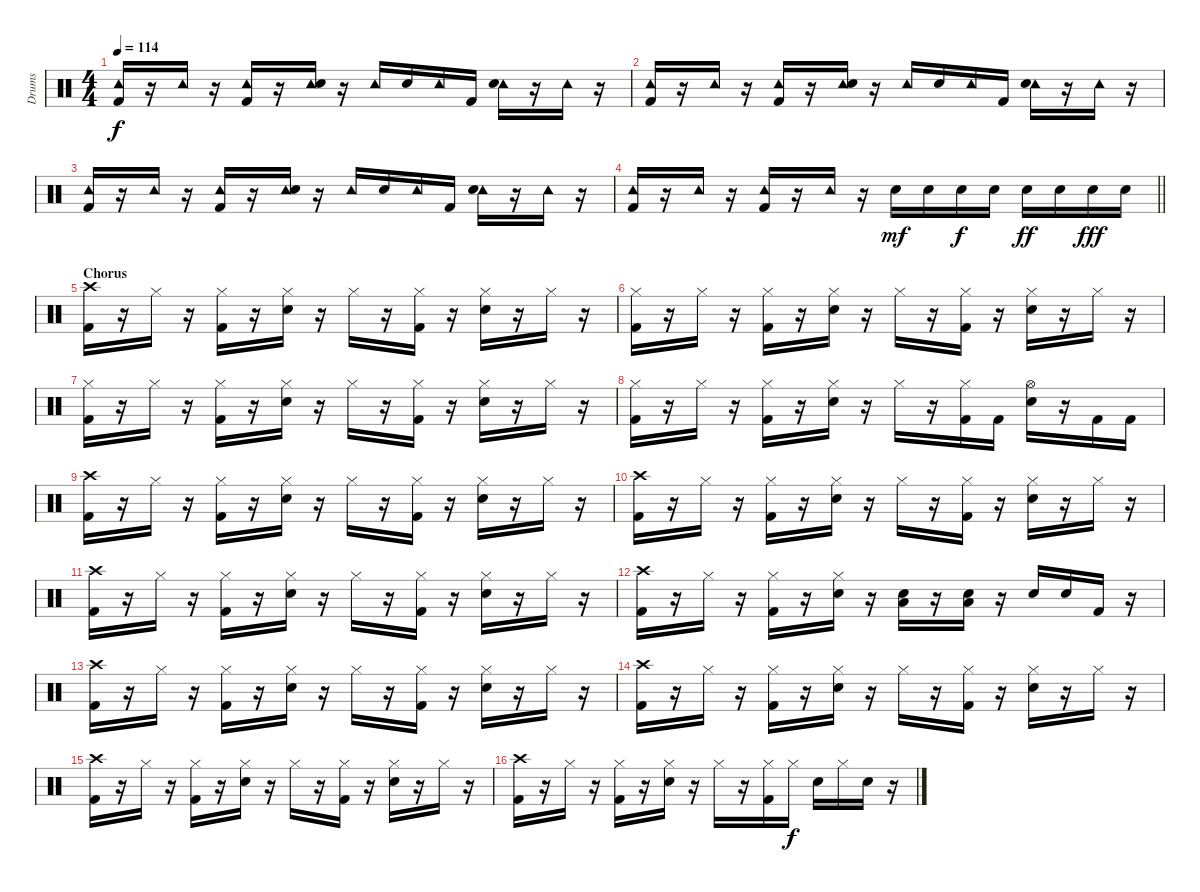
\track ("Drums" "Drums") {instrument percussion bank 127}
\staff {score}
\articulation defaults
\ts (4 4)
\tempo 114
\clef neutral
\ks c
("Tambourine (hit)" "Kick (hit) 2").16{dy f} r.16 "Tambourine (hit)".16 r.16 ("Tambourine (hit)" "Kick (hit) 2").16 r.16 ("Tambourine (hit)" "Electric Snare (hit)").16 r.16 "Tambourine (hit)".16 "Electric Snare (hit)".16 "Tambourine (hit)".16 "Kick (hit) 2".16 ("Tambourine (hit)" "Electric Snare (hit)").16 r.16 "Tambourine (hit)".16 r.16 |
("Tambourine (hit)" "Kick (hit) 2").16 r.16 "Tambourine (hit)".16 r.16 ("Tambourine (hit)" "Kick (hit) 2").16 r.16 ("Tambourine (hit)" "Electric Snare (hit)").16 r.16 "Tambourine (hit)".16 "Electric Snare (hit)".16 "Tambourine (hit)".16 "Kick (hit) 2".16 ("Tambourine (hit)" "Electric Snare (hit)").16 r.16 "Tambourine (hit)".16 r.16 |
("Tambourine (hit)" "Kick (hit) 2").16 r.16 "Tambourine (hit)".16 r.16 ("Tambourine (hit)" "Kick (hit) 2").16 r.16 ("Tambourine (hit)" "Electric Snare (hit)").16 r.16 "Tambourine (hit)".16 "Electric Snare (hit)".16 "Tambourine (hit)".16 "Kick (hit) 2".16 ("Tambourine (hit)" "Electric Snare (hit)").16 r.16 "Tambourine (hit)".16 r.16 |
\barLineRight lightlight
("Tambourine (hit)" "Kick (hit) 2").16 r.16 "Tambourine (hit)".16 r.16 ("Tambourine (hit)" "Kick (hit) 2").16 r.16 "Tambourine (hit)".16 r.16 "Electric Snare (hit)".16{dy mf} "Electric Snare (hit)".16 "Electric Snare (hit)".16{dy f} "Electric Snare (hit)".16 "Electric Snare (hit)".16{dy ff} "Electric Snare (hit)".16 "Electric Snare (hit)".16{dy fff} "Electric Snare (hit)".16 |
\section ("" "Chorus")
("Crash high (hit)" "Kick (hit) 2").16 r.16 "Hi-Hat (closed)".16 r.16 ("Hi-Hat (closed)" "Kick (hit) 2").16 r.16 ("Hi-Hat (closed)" "Electric Snare (hit)").16 r.16 "Hi-Hat (closed)".16 r.16 ("Hi-Hat (closed)" "Kick (hit) 2").16 r.16 ("Hi-Hat (closed)" "Electric Snare (hit)").16 r.16 "Hi-Hat (closed)".16 r.16 |
("Hi-Hat (closed)" "Kick (hit) 2").16 r.16 "Hi-Hat (closed)".16 r.16 ("Hi-Hat (closed)" "Kick (hit) 2").16 r.16 ("Hi-Hat (closed)" "Electric Snare (hit)").16 r.16 "Hi-Hat (closed)".16 r.16 ("Hi-Hat (closed)" "Kick (hit) 2").16 r.16 ("Hi-Hat (closed)" "Electric Snare (hit)").16 r.16 "Hi-Hat (closed)".16 r.16 |
("Hi-Hat (closed)" "Kick (hit) 2").16 r.16 "Hi-Hat (closed)".16 r.16 ("Hi-Hat (closed)" "Kick (hit) 2").16 r.16 ("Hi-Hat (closed)" "Electric Snare (hit)").16 r.16 "Hi-Hat (closed)".16 r.16 ("Hi-Hat (closed)" "Kick (hit) 2").16 r.16 ("Hi-Hat (closed)" "Electric Snare (hit)").16 r.16 "Hi-Hat (closed)".16 r.16 |
("Hi-Hat (closed)" "Kick (hit) 2").16 r.16 "Hi-Hat (closed)".16 r.16 ("Hi-Hat (closed)" "Kick (hit) 2").16 r.16 ("Hi-Hat (closed)" "Electric Snare (hit)").16 r.16 "Hi-Hat (closed)".16 r.16 ("Hi-Hat (closed)" "Kick (hit) 2").16 "Kick (hit) 2".16 ("Hi-Hat (open)" "Electric Snare (hit)").16 r.16 "Kick (hit) 2".16 "Kick (hit) 2".16 |
("Crash high (hit)" "Kick (hit) 2").16 r.16 "Hi-Hat (closed)".16 r.16 ("Hi-Hat (closed)" "Kick (hit) 2").16 r.16 ("Hi-Hat (closed)" "Electric Snare (hit)").16 r.16 "Hi-Hat (closed)".16 r.16 ("Hi-Hat (closed)" "Kick (hit) 2").16 r.16 ("Hi-Hat (closed)" "Electric Snare (hit)").16 r.16 "Hi-Hat (closed)".16 r.16 |
("Crash high (hit)" "Kick (hit) 2").16 r.16 "Hi-Hat (closed)".16 r.16 ("Hi-Hat (closed)" "Kick (hit) 2").16 r.16 ("Hi-Hat (closed)" "Electric Snare (hit)").16 r.16 "Hi-Hat (closed)".16 r.16 ("Hi-Hat (closed)" "Kick (hit) 2").16 r.16 ("Hi-Hat (closed)" "Electric Snare (hit)").16 r.16 "Hi-Hat (closed)".16 r.16 |
("Crash high (hit)" "Kick (hit) 2").16 r.16 "Hi-Hat (closed)".16 r.16 ("Hi-Hat (closed)" "Kick (hit) 2").16 r.16 ("Hi-Hat (closed)" "Electric Snare (hit)").16 r.16 "Hi-Hat (closed)".16 r.16 ("Hi-Hat (closed)" "Kick (hit) 2").16 r.16 ("Hi-Hat (closed)" "Electric Snare (hit)").16 r.16 "Hi-Hat (closed)".16 r.16 |
("Crash high (hit)" "Kick (hit) 2").16 r.16 "Hi-Hat (closed)".16 r.16 ("Hi-Hat (closed)" "Kick (hit) 2").16 r.16 ("Hi-Hat (closed)" "Electric Snare (hit)").16 r.16 ("Low Floor Tom (hit)" "Electric Snare (hit)").16 r.16 ("Low Floor Tom (hit)" "Electric Snare (hit)").16 r.16 "Electric Snare (hit)".16 "Electric Snare (hit)".16 "Kick (hit) 2".16 r.16 |
("Crash high (hit)" "Kick (hit) 2").16 r.16 "Hi-Hat (closed)".16 r.16 ("Hi-Hat (closed)" "Kick (hit) 2").16 r.16 ("Hi-Hat (closed)" "Electric Snare (hit)").16 r.16 "Hi-Hat (closed)".16 r.16 ("Hi-Hat (closed)" "Kick (hit) 2").16 r.16 ("Hi-Hat (closed)" "Electric Snare (hit)").16 r.16 "Hi-Hat (closed)".16 r.16 |
("Crash high (hit)" "Kick (hit) 2").16 r.16 "Hi-Hat (closed)".16 r.16 ("Hi-Hat (closed)" "Kick (hit) 2").16 r.16 ("Hi-Hat (closed)" "Electric Snare (hit)").16 r.16 "Hi-Hat (closed)".16 r.16 ("Hi-Hat (closed)" "Kick (hit) 2").16 r.16 ("Hi-Hat (closed)" "Electric Snare (hit)").16 r.16 "Hi-Hat (closed)".16 r.16 |
("Crash high (hit)" "Kick (hit) 2").16 r.16 "Hi-Hat (closed)".16 r.16 ("Hi-Hat (closed)" "Kick (hit) 2").16 r.16 ("Hi-Hat (closed)" "Electric Snare (hit)").16 r.16 "Hi-Hat (closed)".16 r.16 ("Hi-Hat (closed)" "Kick (hit) 2").16 r.16 ("Hi-Hat (closed)" "Electric Snare (hit)").16 r.16 "Hi-Hat (closed)".16 r.16 |
("Crash high (hit)" "Kick (hit) 2").16 r.16 "Hi-Hat (closed)".16 r.16 ("Hi-Hat (closed)" "Kick (hit) 2").16 r.16 ("Hi-Hat (closed)" "Electric Snare (hit)").16 r.16 "Hi-Hat (closed)".16 r.16 ("Hi-Hat (closed)" "Kick (hit) 2").16 "Hi-Hat (closed)".16{dy f} "Electric Snare (hit)".16 "Hi-Hat (closed)".16 "Electric Snare (hit)".16 r.16
